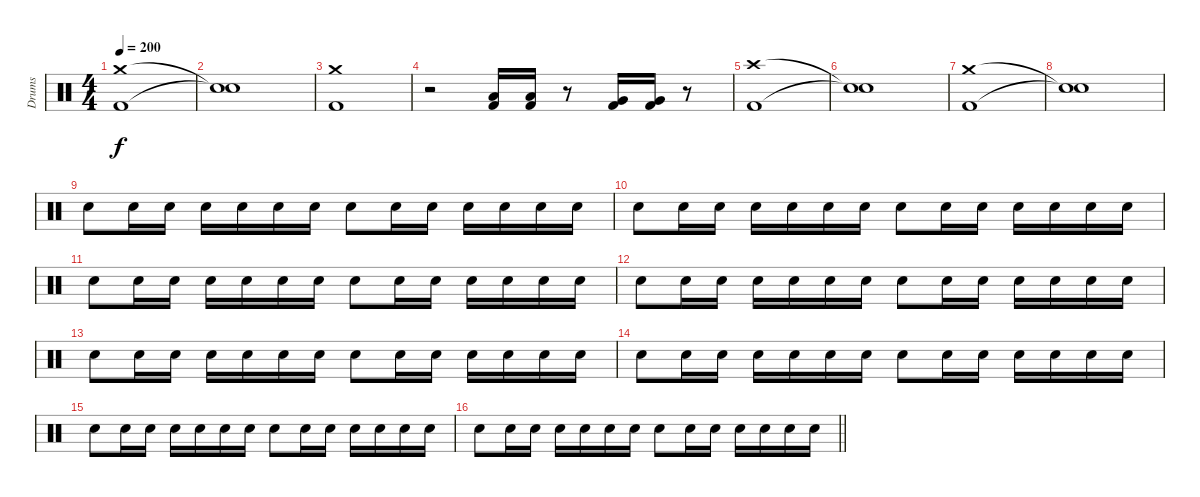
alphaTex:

\track ("Drums" "Drums") {instrument percussion}
\staff {score}
\articulation defaults
\ts (4 4)
\tempo 200
\tempo 146
\tempo 200
\clef neutral
\ks c
("Kick (hit) 2" "Crash medium (hit)").1{dy f} |
("Snare (hit)"{t} "Snare (hit)"{t}).1 |
("Kick (hit) 2" "Crash medium (hit)").1 |
r.2 ("Kick (hit) 2" "Low Tom (hit)").16 ("Kick (hit) 2" "Low Tom (hit)").16 r.8 ("Kick (hit) 2" "Very Low Tom (hit)").16 ("Kick (hit) 2" "Very Low Tom (hit)").16 r.8 |
("Kick (hit) 2" "Crash high (hit)").1 |
("Snare (hit)"{t} "Snare (hit)"{t}).1 |
("Kick (hit) 2" "Crash medium (hit)").1 |
("Snare (hit)"{t} "Snare (hit)"{t}).1 |
"Snare (hit) 2".8 "Snare (hit) 2".16 "Snare (hit) 2".16 "Snare (hit) 2".16 "Snare (hit) 2".16 "Snare (hit) 2".16 "Snare (hit) 2".16 "Snare (hit) 2".8 "Snare (hit) 2".16 "Snare (hit) 2".16 "Snare (hit) 2".16 "Snare (hit) 2".16 "Snare (hit) 2".16 "Snare (hit) 2".16 |
"Snare (hit) 2".8 "Snare (hit) 2".16 "Snare (hit) 2".16 "Snare (hit) 2".16 "Snare (hit) 2".16 "Snare (hit) 2".16 "Snare (hit) 2".16 "Snare (hit) 2".8 "Snare (hit) 2".16 "Snare (hit) 2".16 "Snare (hit) 2".16 "Snare (hit) 2".16 "Snare (hit) 2".16 "Snare (hit) 2".16 |
"Snare (hit) 2".8 "Snare (hit) 2".16 "Snare (hit) 2".16 "Snare (hit) 2".16 "Snare (hit) 2".16 "Snare (hit) 2".16 "Snare (hit) 2".16 "Snare (hit) 2".8 "Snare (hit) 2".16 "Snare (hit) 2".16 "Snare (hit) 2".16 "Snare (hit) 2".16 "Snare (hit) 2".16 "Snare (hit) 2".16 |
"Snare (hit) 2".8 "Snare (hit) 2".16 "Snare (hit) 2".16 "Snare (hit) 2".16 "Snare (hit) 2".16 "Snare (hit) 2".16 "Snare (hit) 2".16 "Snare (hit) 2".8 "Snare (hit) 2".16 "Snare (hit) 2".16 "Snare (hit) 2".16 "Snare (hit) 2".16 "Snare (hit) 2".16 "Snare (hit) 2".16 |
"Snare (hit) 2".8 "Snare (hit) 2".16 "Snare (hit) 2".16 "Snare (hit) 2".16 "Snare (hit) 2".16 "Snare (hit) 2".16 "Snare (hit) 2".16 "Snare (hit) 2".8 "Snare (hit) 2".16 "Snare (hit) 2".16 "Snare (hit) 2".16 "Snare (hit) 2".16 "Snare (hit) 2".16 "Snare (hit) 2".16 |
"Snare (hit) 2".8 "Snare (hit) 2".16 "Snare (hit) 2".16 "Snare (hit) 2".16 "Snare (hit) 2".16 "Snare (hit) 2".16 "Snare (hit) 2".16 "Snare (hit) 2".8 "Snare (hit) 2".16 "Snare (hit) 2".16 "Snare (hit) 2".16 "Snare (hit) 2".16 "Snare (hit) 2".16 "Snare (hit) 2".16 |
"Snare (hit) 2".8 "Snare (hit) 2".16 "Snare (hit) 2".16 "Snare (hit) 2".16 "Snare (hit) 2".16 "Snare (hit) 2".16 "Snare (hit) 2".16 "Snare (hit) 2".8 "Snare (hit) 2".16 "Snare (hit) 2".16 "Snare (hit) 2".16 "Snare (hit) 2".16 "Snare (hit) 2".16 "Snare (hit) 2".16 |
\barLineRight lightlight "Snare (hit) 2".8 "Snare (hit) 2".16 "Snare (hit) 2".16 "Snare (hit) 2".16 "Snare (hit) 2".16 "Snare (hit) 2".16 "Snare (hit) 2".16 "Snare (hit) 2".8 "Snare (hit) 2".16 "Snare (hit) 2".16 "Snare (hit) 2".16 "Snare (hit) 2".16 "Snare (hit) 2".16 "Snare (hit) 2".16
